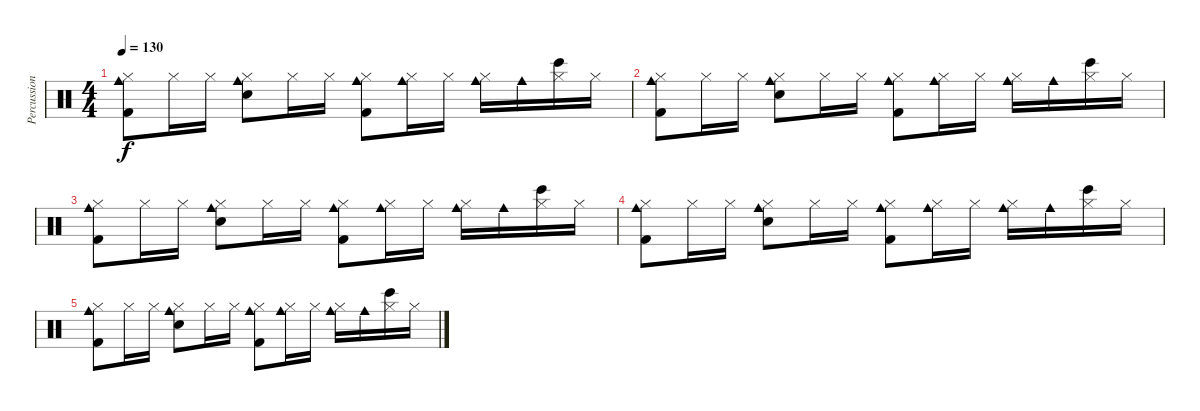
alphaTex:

\track ("Percussions" "Percussion") {instrument percussion}
\staff {score}
\articulation defaults
\ts (4 4)
\tempo 130
\clef neutral
\ks c
("Cowbell medium (hit)" "Kick (hit) 2" "Hi-Hat (closed)").8{dy f} "Hi-Hat (closed)".16 "Hi-Hat (closed)".16 ("Cowbell medium (hit)" "Electric Snare (hit)" "Hi-Hat (closed)").8 "Hi-Hat (closed)".16 "Hi-Hat (closed)".16 ("Cowbell medium (hit)" "Kick (hit) 2" "Hi-Hat (closed)").8 ("Cowbell medium (hit)" "Hi-Hat (closed)").16 "Hi-Hat (closed)".16 ("Cowbell medium (hit)" "Hi-Hat (closed)").16 "Cowbell medium (hit)".16 ("Bongo High (hit)" "Hi-Hat (closed)").16 "Hi-Hat (closed)".16 |
("Cowbell medium (hit)" "Kick (hit) 2" "Hi-Hat (closed)").8 "Hi-Hat (closed)".16 "Hi-Hat (closed)".16 ("Cowbell medium (hit)" "Electric Snare (hit)" "Hi-Hat (closed)").8 "Hi-Hat (closed)".16 "Hi-Hat (closed)".16 ("Cowbell medium (hit)" "Kick (hit) 2" "Hi-Hat (closed)").8 ("Cowbell medium (hit)" "Hi-Hat (closed)").16 "Hi-Hat (closed)".16 ("Cowbell medium (hit)" "Hi-Hat (closed)").16 "Cowbell medium (hit)".16 ("Bongo High (hit)" "Hi-Hat (closed)").16 "Hi-Hat (closed)".16 |
("Cowbell medium (hit)" "Kick (hit) 2" "Hi-Hat (closed)").8 "Hi-Hat (closed)".16 "Hi-Hat (closed)".16 ("Cowbell medium (hit)" "Electric Snare (hit)" "Hi-Hat (closed)").8 "Hi-Hat (closed)".16 "Hi-Hat (closed)".16 ("Cowbell medium (hit)" "Kick (hit) 2" "Hi-Hat (closed)").8 ("Cowbell medium (hit)" "Hi-Hat (closed)").16 "Hi-Hat (closed)".16 ("Cowbell medium (hit)" "Hi-Hat (closed)").16 "Cowbell medium (hit)".16 ("Bongo High (hit)" "Hi-Hat (closed)").16 "Hi-Hat (closed)".16 |
("Cowbell medium (hit)" "Kick (hit) 2" "Hi-Hat (closed)").8 "Hi-Hat (closed)".16 "Hi-Hat (closed)".16 ("Cowbell medium (hit)" "Electric Snare (hit)" "Hi-Hat (closed)").8 "Hi-Hat (closed)".16 "Hi-Hat (closed)".16 ("Cowbell medium (hit)" "Kick (hit) 2" "Hi-Hat (closed)").8 ("Cowbell medium (hit)" "Hi-Hat (closed)").16 "Hi-Hat (closed)".16 ("Cowbell medium (hit)" "Hi-Hat (closed)").16 "Cowbell medium (hit)".16 ("Bongo High (hit)" "Hi-Hat (closed)").16 "Hi-Hat (closed)".16 |
("Cowbell medium (hit)" "Kick (hit) 2" "Hi-Hat (closed)").8 "Hi-Hat (closed)".16 "Hi-Hat (closed)".16 ("Cowbell medium (hit)" "Electric Snare (hit)" "Hi-Hat (closed)").8 "Hi-Hat (closed)".16 "Hi-Hat (closed)".16 ("Cowbell medium (hit)" "Kick (hit) 2" "Hi-Hat (closed)").8 ("Cowbell medium (hit)" "Hi-Hat (closed)").16 "Hi-Hat (closed)".16 ("Cowbell medium (hit)" "Hi-Hat (closed)").16 "Cowbell medium (hit)".16 ("Bongo High (hit)" "Hi-Hat (closed)").16 "Hi-Hat (closed)".16
